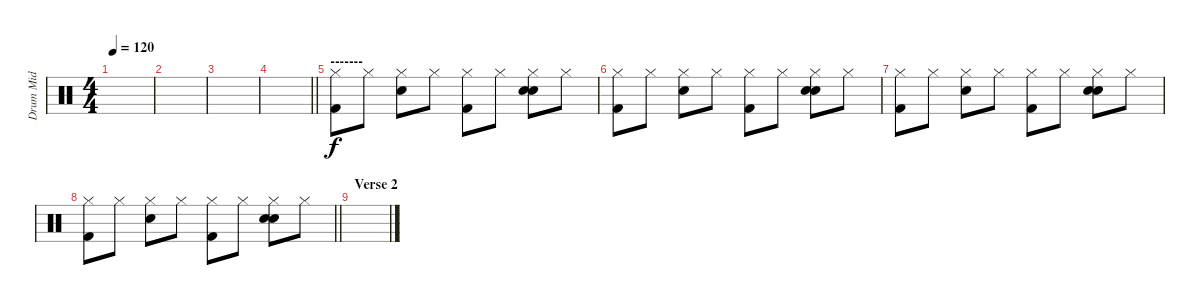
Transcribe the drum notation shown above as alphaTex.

\track ("Drum Mid" "Drum Mid") {instrument percussion}
\staff {score}
\articulation defaults
\ts (4 4)
\tempo 120
\clef neutral
\ks c
|
|
|
\barLineRight lightlight
|
\section ("" "-------")
("Hi-Hat (closed)" "Kick (hit) 2").8 "Hi-Hat (closed)".8 ("Hi-Hat (closed)" "Snare (hit) 2").8 "Hi-Hat (closed)".8 ("Hi-Hat (closed)" "Kick (hit) 2").8 "Hi-Hat (closed)".8 ("Hi-Hat (closed)" "Snare (hit) 2" "Hand Clap (hit)").8 "Hi-Hat (closed)".8 |
("Hi-Hat (closed)" "Kick (hit) 2").8 "Hi-Hat (closed)".8 ("Hi-Hat (closed)" "Snare (hit) 2").8 "Hi-Hat (closed)".8 ("Hi-Hat (closed)" "Kick (hit) 2").8 "Hi-Hat (closed)".8 ("Hi-Hat (closed)" "Snare (hit) 2" "Hand Clap (hit)").8 "Hi-Hat (closed)".8 |
("Hi-Hat (closed)" "Kick (hit) 2").8 "Hi-Hat (closed)".8 ("Hi-Hat (closed)" "Snare (hit) 2").8 "Hi-Hat (closed)".8 ("Hi-Hat (closed)" "Kick (hit) 2").8 "Hi-Hat (closed)".8 ("Hi-Hat (closed)" "Snare (hit) 2" "Hand Clap (hit)").8 "Hi-Hat (closed)".8 |
\barLineRight lightlight
("Hi-Hat (closed)" "Kick (hit) 2").8 "Hi-Hat (closed)".8 ("Hi-Hat (closed)" "Snare (hit) 2").8 "Hi-Hat (closed)".8 ("Hi-Hat (closed)" "Kick (hit) 2").8 "Hi-Hat (closed)".8 ("Hi-Hat (closed)" "Snare (hit) 2" "Hand Clap (hit)").8 "Hi-Hat (closed)".8 |
\section ("" "Verse 2")
